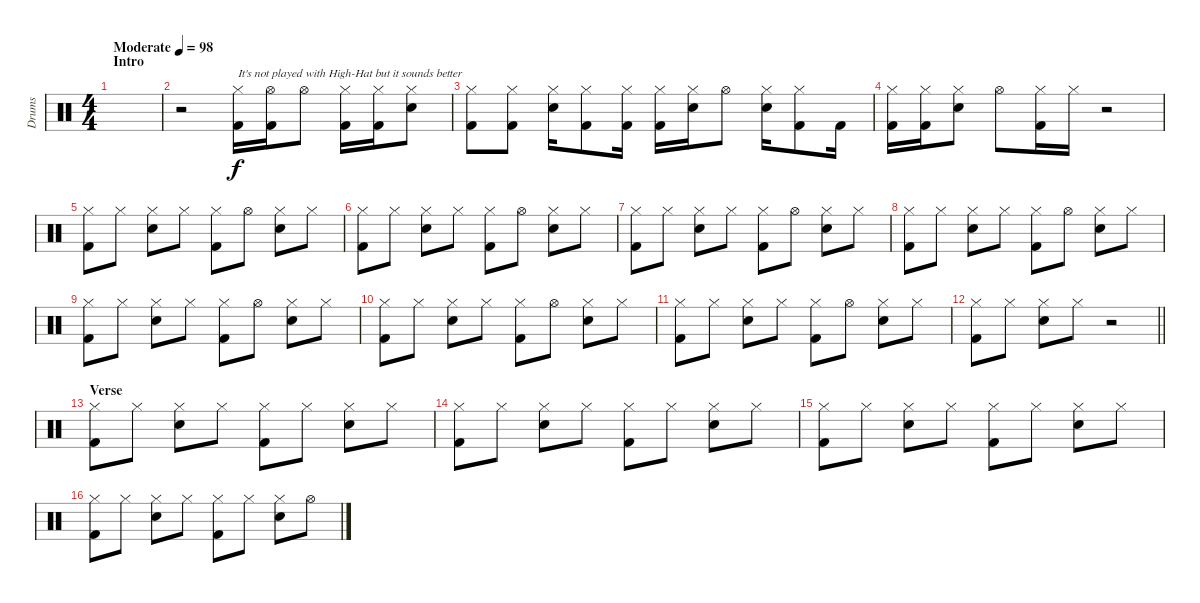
\track ("Drums" "Drums") {instrument percussion}
\staff {score}
\articulation defaults
\ts (4 4)
\section ("" "Intro")
\tempo (98 "Moderate")
\clef neutral
\ks c
|
r.2 ("Hi-Hat (closed)" "Kick (hit) 2").16{txt "It's not played with High-Hat but it sounds better"} ("Hi-Hat (open)" "Kick (hit) 2").16 "Hi-Hat (open)".8 ("Hi-Hat (closed)" "Kick (hit) 2").16 ("Hi-Hat (closed)" "Kick (hit) 2").16 ("Hi-Hat (closed)" "Snare (hit) 2").8 |
("Hi-Hat (closed)" "Kick (hit) 2").8 ("Hi-Hat (closed)" "Kick (hit) 2").8 ("Hi-Hat (closed)" "Snare (hit) 2").16 ("Hi-Hat (closed)" "Kick (hit) 2").8 ("Hi-Hat (closed)" "Kick (hit) 2").16 ("Hi-Hat (closed)" "Kick (hit) 2").16 ("Hi-Hat (closed)" "Snare (hit) 2").16 "Hi-Hat (open)".8 ("Hi-Hat (closed)" "Snare (hit) 2").16 ("Hi-Hat (closed)" "Kick (hit) 2").8 "Kick (hit) 2".16 |
("Hi-Hat (closed)" "Kick (hit) 2").16 ("Hi-Hat (closed)" "Kick (hit) 2").16 ("Hi-Hat (closed)" "Snare (hit) 2").8 "Hi-Hat (open)".8 ("Hi-Hat (closed)" "Kick (hit) 2").16 "Hi-Hat (closed)".16 r.2 |
("Hi-Hat (closed)" "Kick (hit) 2").8{volume 12} "Hi-Hat (closed)".8 ("Hi-Hat (closed)" "Electric Snare (hit)").8 "Hi-Hat (closed)".8 ("Hi-Hat (closed)" "Kick (hit) 2").8 "Hi-Hat (open)".8 ("Hi-Hat (closed)" "Electric Snare (hit)").8 "Hi-Hat (closed)".8 |
("Hi-Hat (closed)" "Kick (hit) 2").8 "Hi-Hat (closed)".8 ("Hi-Hat (closed)" "Electric Snare (hit)").8 "Hi-Hat (closed)".8 ("Hi-Hat (closed)" "Kick (hit) 2").8 "Hi-Hat (open)".8 ("Hi-Hat (closed)" "Electric Snare (hit)").8 "Hi-Hat (closed)".8 |
("Hi-Hat (closed)" "Kick (hit) 2").8 "Hi-Hat (closed)".8 ("Hi-Hat (closed)" "Electric Snare (hit)").8 "Hi-Hat (closed)".8 ("Hi-Hat (closed)" "Kick (hit) 2").8 "Hi-Hat (open)".8 ("Hi-Hat (closed)" "Electric Snare (hit)").8 "Hi-Hat (closed)".8 |
("Hi-Hat (closed)" "Kick (hit) 2").8 "Hi-Hat (closed)".8 ("Hi-Hat (closed)" "Electric Snare (hit)").8 "Hi-Hat (closed)".8 ("Hi-Hat (closed)" "Kick (hit) 2").8 "Hi-Hat (open)".8 ("Hi-Hat (closed)" "Electric Snare (hit)").8 "Hi-Hat (closed)".8 |
("Hi-Hat (closed)" "Kick (hit) 2").8 "Hi-Hat (closed)".8 ("Hi-Hat (closed)" "Electric Snare (hit)").8 "Hi-Hat (closed)".8 ("Hi-Hat (closed)" "Kick (hit) 2").8 "Hi-Hat (open)".8 ("Hi-Hat (closed)" "Electric Snare (hit)").8 "Hi-Hat (closed)".8 |
("Hi-Hat (closed)" "Kick (hit) 2").8 "Hi-Hat (closed)".8 ("Hi-Hat (closed)" "Electric Snare (hit)").8 "Hi-Hat (closed)".8 ("Hi-Hat (closed)" "Kick (hit) 2").8 "Hi-Hat (open)".8 ("Hi-Hat (closed)" "Electric Snare (hit)").8 "Hi-Hat (closed)".8 |
("Hi-Hat (closed)" "Kick (hit) 2").8 "Hi-Hat (closed)".8 ("Hi-Hat (closed)" "Electric Snare (hit)").8 "Hi-Hat (closed)".8 ("Hi-Hat (closed)" "Kick (hit) 2").8 "Hi-Hat (open)".8 ("Hi-Hat (closed)" "Electric Snare (hit)").8 "Hi-Hat (closed)".8 |
\barLineRight lightlight
("Hi-Hat (closed)" "Kick (hit) 2").8 "Hi-Hat (closed)".8 ("Hi-Hat (closed)" "Electric Snare (hit)").8 "Hi-Hat (closed)".8 r.2 |
\section ("" "Verse")
("Hi-Hat (closed)" "Kick (hit) 2").8{volume 13} "Hi-Hat (closed)".8 ("Hi-Hat (closed)" "Snare (hit) 2").8 "Hi-Hat (closed)".8 ("Hi-Hat (closed)" "Kick (hit) 2").8 "Hi-Hat (closed)".8 ("Hi-Hat (closed)" "Snare (hit) 2").8 "Hi-Hat (closed)".8 |
("Hi-Hat (closed)" "Kick (hit) 2").8 "Hi-Hat (closed)".8 ("Hi-Hat (closed)" "Snare (hit) 2").8 "Hi-Hat (closed)".8 ("Hi-Hat (closed)" "Kick (hit) 2").8 "Hi-Hat (closed)".8 ("Hi-Hat (closed)" "Snare (hit) 2").8 "Hi-Hat (closed)".8 |
("Hi-Hat (closed)" "Kick (hit) 2").8 "Hi-Hat (closed)".8 ("Hi-Hat (closed)" "Snare (hit) 2").8 "Hi-Hat (closed)".8 ("Hi-Hat (closed)" "Kick (hit) 2").8 "Hi-Hat (closed)".8 ("Hi-Hat (closed)" "Snare (hit) 2").8 "Hi-Hat (closed)".8 |
("Hi-Hat (closed)" "Kick (hit) 2").8 "Hi-Hat (closed)".8 ("Hi-Hat (closed)" "Snare (hit) 2").8 "Hi-Hat (closed)".8 ("Hi-Hat (closed)" "Kick (hit) 2").8 "Hi-Hat (closed)".8 ("Hi-Hat (closed)" "Snare (hit) 2").8 "Hi-Hat (open)".8
